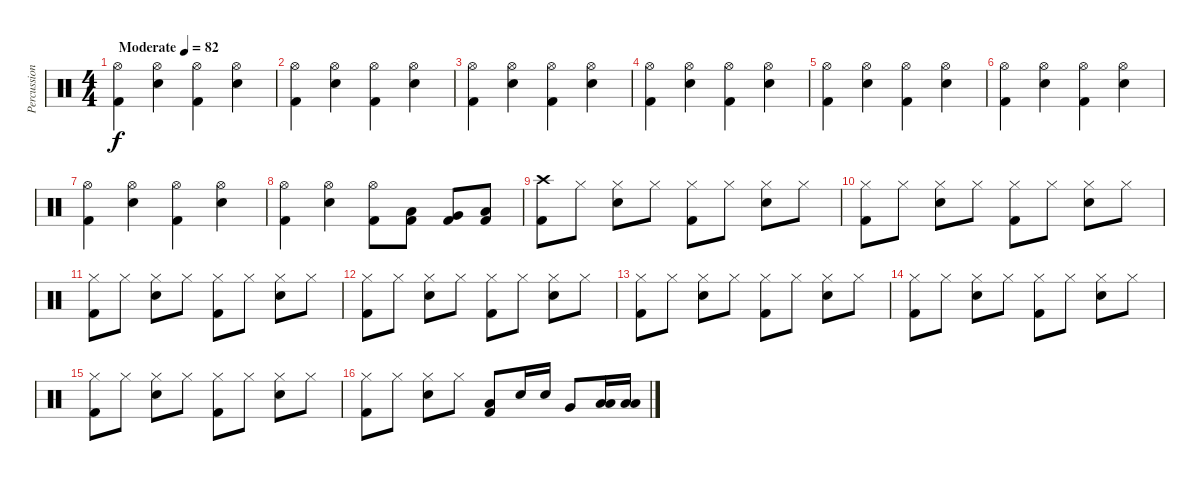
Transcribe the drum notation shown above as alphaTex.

\track ("Percussion" "Percussion") {instrument percussion}
\staff {score}
\articulation defaults
\ts (4 4)
\tempo (82 "Moderate")
\clef neutral
\ks c
("Hi-Hat (open)" "Kick (hit) 2").4{dy f} ("Hi-Hat (open)" "Snare (hit) 2").4 ("Hi-Hat (open)" "Kick (hit) 2").4 ("Hi-Hat (open)" "Snare (hit) 2").4 |
("Hi-Hat (open)" "Kick (hit) 2").4 ("Hi-Hat (open)" "Snare (hit) 2").4 ("Hi-Hat (open)" "Kick (hit) 2").4 ("Hi-Hat (open)" "Snare (hit) 2").4 |
("Hi-Hat (open)" "Kick (hit) 2").4 ("Hi-Hat (open)" "Snare (hit) 2").4 ("Hi-Hat (open)" "Kick (hit) 2").4 ("Hi-Hat (open)" "Snare (hit) 2").4 |
("Hi-Hat (open)" "Kick (hit) 2").4 ("Hi-Hat (open)" "Snare (hit) 2").4 ("Hi-Hat (open)" "Kick (hit) 2").4 ("Hi-Hat (open)" "Snare (hit) 2").4 |
("Hi-Hat (open)" "Kick (hit) 2").4 ("Hi-Hat (open)" "Snare (hit) 2").4 ("Hi-Hat (open)" "Kick (hit) 2").4 ("Hi-Hat (open)" "Snare (hit) 2").4 |
("Hi-Hat (open)" "Kick (hit) 2").4 ("Hi-Hat (open)" "Snare (hit) 2").4 ("Hi-Hat (open)" "Kick (hit) 2").4 ("Hi-Hat (open)" "Snare (hit) 2").4 |
("Hi-Hat (open)" "Kick (hit) 2").4 ("Hi-Hat (open)" "Snare (hit) 2").4 ("Hi-Hat (open)" "Kick (hit) 2").4 ("Hi-Hat (open)" "Snare (hit) 2").4 |
("Hi-Hat (open)" "Kick (hit) 2").4 ("Hi-Hat (open)" "Snare (hit) 2").4 ("Hi-Hat (open)" "Kick (hit) 2").8 ("Kick (hit) 2" "Low Tom (hit)").8 ("Kick (hit) 2" "Very Low Tom (hit)").8 ("Kick (hit) 2" "Low Floor Tom (hit)").8 |
("Crash high (hit)" "Kick (hit) 2").8 "Hi-Hat (closed)".8 ("Snare (hit) 2" "Hi-Hat (closed)").8 "Hi-Hat (closed)".8 ("Kick (hit) 2" "Hi-Hat (closed)").8 "Hi-Hat (closed)".8 ("Snare (hit) 2" "Hi-Hat (closed)").8 "Hi-Hat (closed)".8 |
("Kick (hit) 2" "Hi-Hat (closed)").8 "Hi-Hat (closed)".8 ("Snare (hit) 2" "Hi-Hat (closed)").8 "Hi-Hat (closed)".8 ("Kick (hit) 2" "Hi-Hat (closed)").8 "Hi-Hat (closed)".8 ("Snare (hit) 2" "Hi-Hat (closed)").8 "Hi-Hat (closed)".8 |
("Kick (hit) 2" "Hi-Hat (closed)").8 "Hi-Hat (closed)".8 ("Snare (hit) 2" "Hi-Hat (closed)").8 "Hi-Hat (closed)".8 ("Kick (hit) 2" "Hi-Hat (closed)").8 "Hi-Hat (closed)".8 ("Snare (hit) 2" "Hi-Hat (closed)").8 "Hi-Hat (closed)".8 |
("Kick (hit) 2" "Hi-Hat (closed)").8 "Hi-Hat (closed)".8 ("Snare (hit) 2" "Hi-Hat (closed)").8 "Hi-Hat (closed)".8 ("Kick (hit) 2" "Hi-Hat (closed)").8 "Hi-Hat (closed)".8 ("Snare (hit) 2" "Hi-Hat (closed)").8 "Hi-Hat (closed)".8 |
("Kick (hit) 2" "Hi-Hat (closed)").8 "Hi-Hat (closed)".8 ("Snare (hit) 2" "Hi-Hat (closed)").8 "Hi-Hat (closed)".8 ("Kick (hit) 2" "Hi-Hat (closed)").8 "Hi-Hat (closed)".8 ("Snare (hit) 2" "Hi-Hat (closed)").8 "Hi-Hat (closed)".8 |
("Kick (hit) 2" "Hi-Hat (closed)").8 "Hi-Hat (closed)".8 ("Snare (hit) 2" "Hi-Hat (closed)").8 "Hi-Hat (closed)".8 ("Kick (hit) 2" "Hi-Hat (closed)").8 "Hi-Hat (closed)".8 ("Snare (hit) 2" "Hi-Hat (closed)").8 "Hi-Hat (closed)".8 |
("Kick (hit) 2" "Hi-Hat (closed)").8 "Hi-Hat (closed)".8 ("Snare (hit) 2" "Hi-Hat (closed)").8 "Hi-Hat (closed)".8 ("Kick (hit) 2" "Hi-Hat (closed)").8 "Hi-Hat (closed)".8 ("Snare (hit) 2" "Hi-Hat (closed)").8 "Hi-Hat (closed)".8 |
("Kick (hit) 2" "Hi-Hat (closed)").8 "Hi-Hat (closed)".8 ("Snare (hit) 2" "Hi-Hat (closed)").8 "Hi-Hat (closed)".8 ("Kick (hit) 2" "Low Floor Tom (hit)").8 "Snare (hit) 2".16 "Snare (hit) 2".16 "Very Low Tom (hit)".8 ("Low Tom (hit)" "Low Tom (hit)").16 ("Low Tom (hit)" "Low Tom (hit)").16
